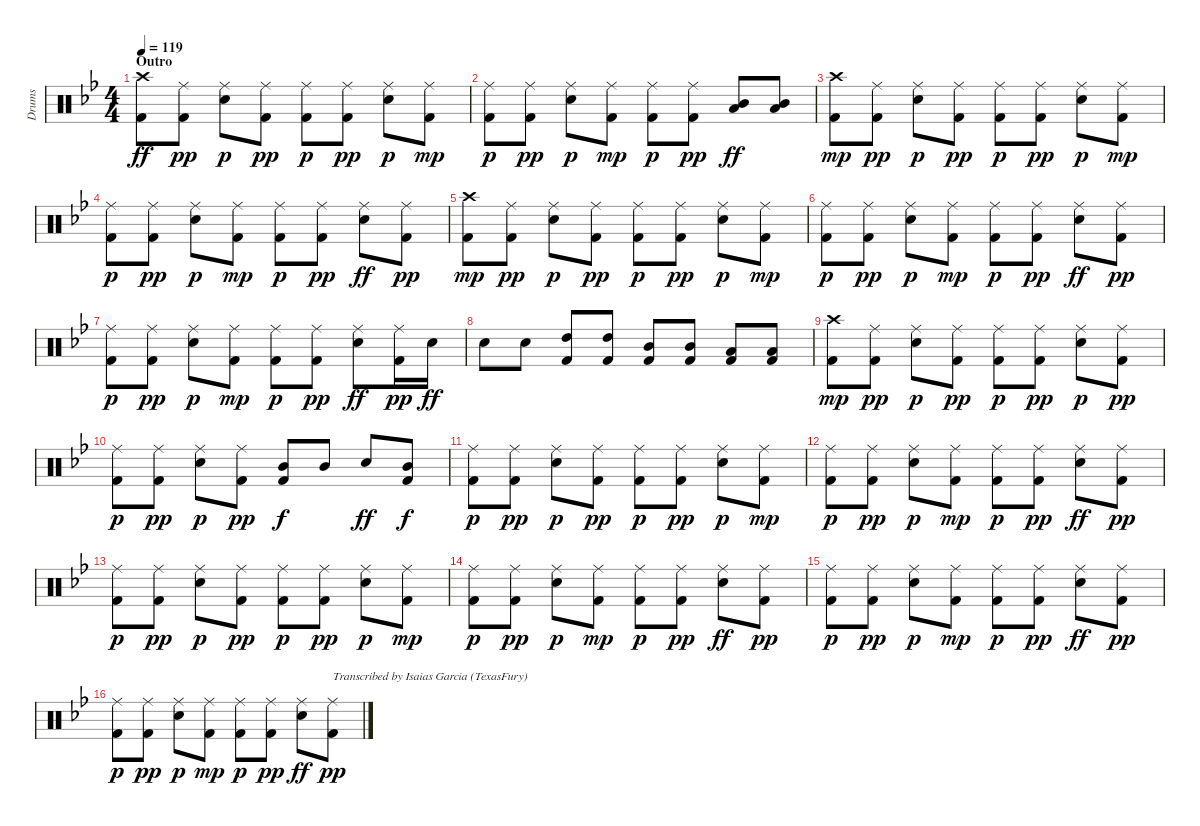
\track ("Drums" "Drums") {instrument percussion}
\staff {score}
\articulation defaults
\ts (4 4)
\section ("" "Outro")
\tempo 119
\clef neutral
\ks bb
("Crash high (hit)" "Kick (hit) 2").8{dy ff} ("Ride (middle)" "Kick (hit) 2").8{dy pp} ("Ride (middle)" "Electric Snare (hit)").8{dy p} ("Ride (middle)" "Kick (hit) 2").8{dy pp} ("Ride (middle)" "Kick (hit) 2").8{dy p} ("Ride (middle)" "Kick (hit) 2").8{dy pp} ("Ride (middle)" "Electric Snare (hit)").8{dy p} ("Ride (middle)" "Kick (hit) 2").8{dy mp} |
("Ride (middle)" "Kick (hit) 2").8{dy p} ("Ride (middle)" "Kick (hit) 2").8{dy pp} ("Ride (middle)" "Electric Snare (hit)").8{dy p} ("Ride (middle)" "Kick (hit) 2").8{dy mp} ("Ride (middle)" "Kick (hit) 2").8{dy p} ("Ride (middle)" "Kick (hit) 2").8{dy pp} ("Mid Tom (hit)" "Low Tom (hit)").8{dy ff} ("Mid Tom (hit)" "Low Tom (hit)").8 |
("Crash high (hit)" "Kick (hit) 2").8{dy mp} ("Ride (middle)" "Kick (hit) 2").8{dy pp} ("Ride (middle)" "Electric Snare (hit)").8{dy p} ("Ride (middle)" "Kick (hit) 2").8{dy pp} ("Ride (middle)" "Kick (hit) 2").8{dy p} ("Ride (middle)" "Kick (hit) 2").8{dy pp} ("Ride (middle)" "Electric Snare (hit)").8{dy p} ("Ride (middle)" "Kick (hit) 2").8{dy mp} |
("Ride (middle)" "Kick (hit) 2").8{dy p} ("Ride (middle)" "Kick (hit) 2").8{dy pp} ("Ride (middle)" "Electric Snare (hit)").8{dy p} ("Ride (middle)" "Kick (hit) 2").8{dy mp} ("Ride (middle)" "Kick (hit) 2").8{dy p} ("Ride (middle)" "Kick (hit) 2").8{dy pp} ("Ride (middle)" "Electric Snare (hit)").8{dy ff} ("Ride (middle)" "Kick (hit) 2").8{dy pp} |
("Crash high (hit)" "Kick (hit) 2").8{dy mp} ("Ride (middle)" "Kick (hit) 2").8{dy pp} ("Ride (middle)" "Electric Snare (hit)").8{dy p} ("Ride (middle)" "Kick (hit) 2").8{dy pp} ("Ride (middle)" "Kick (hit) 2").8{dy p} ("Ride (middle)" "Kick (hit) 2").8{dy pp} ("Ride (middle)" "Electric Snare (hit)").8{dy p} ("Ride (middle)" "Kick (hit) 2").8{dy mp} |
("Ride (middle)" "Kick (hit) 2").8{dy p} ("Ride (middle)" "Kick (hit) 2").8{dy pp} ("Ride (middle)" "Electric Snare (hit)").8{dy p} ("Ride (middle)" "Kick (hit) 2").8{dy mp} ("Ride (middle)" "Kick (hit) 2").8{dy p} ("Ride (middle)" "Kick (hit) 2").8{dy pp} ("Ride (middle)" "Electric Snare (hit)").8{dy ff} ("Ride (middle)" "Kick (hit) 2").8{dy pp} |
("Ride (middle)" "Kick (hit) 2").8{dy p} ("Ride (middle)" "Kick (hit) 2").8{dy pp} ("Ride (middle)" "Electric Snare (hit)").8{dy p} ("Ride (middle)" "Kick (hit) 2").8{dy mp} ("Ride (middle)" "Kick (hit) 2").8{dy p} ("Ride (middle)" "Kick (hit) 2").8{dy pp} ("Ride (middle)" "Electric Snare (hit)").8{dy ff} ("Ride (middle)" "Kick (hit) 2").16{dy pp} "Electric Snare (hit)".16{dy ff} |
"Electric Snare (hit)".8 "Electric Snare (hit)".8 ("Kick (hit) 2" "High Tom (hit)").8 ("Kick (hit) 2" "High Tom (hit)").8 ("Kick (hit) 2" "Mid Tom (hit)").8 ("Kick (hit) 2" "Mid Tom (hit)").8 ("Kick (hit) 2" "Low Tom (hit)").8 ("Kick (hit) 2" "Low Tom (hit)").8 |
("Crash high (hit)" "Kick (hit) 2").8{dy mp volume 6} ("Ride (middle)" "Kick (hit) 2").8{dy pp} ("Ride (middle)" "Electric Snare (hit)").8{dy p} ("Ride (middle)" "Kick (hit) 2").8{dy pp} ("Ride (middle)" "Kick (hit) 2").8{dy p} ("Ride (middle)" "Kick (hit) 2").8{dy pp} ("Ride (middle)" "Electric Snare (hit)").8{dy p} ("Ride (middle)" "Kick (hit) 2").8{dy pp} |
("Ride (middle)" "Kick (hit) 2").8{dy p} ("Ride (middle)" "Kick (hit) 2").8{dy pp} ("Ride (middle)" "Electric Snare (hit)").8{dy p} ("Ride (middle)" "Kick (hit) 2").8{dy pp} ("Mid Tom (hit)" "Kick (hit) 2").8{dy f} "Mid Tom (hit)".8 "Electric Snare (hit)".8{dy ff} ("Kick (hit) 2" "Mid Tom (hit)").8{dy f} |
("Ride (middle)" "Kick (hit) 2").8{dy p} ("Ride (middle)" "Kick (hit) 2").8{dy pp} ("Ride (middle)" "Electric Snare (hit)").8{dy p} ("Ride (middle)" "Kick (hit) 2").8{dy pp} ("Ride (middle)" "Kick (hit) 2").8{dy p} ("Ride (middle)" "Kick (hit) 2").8{dy pp} ("Ride (middle)" "Electric Snare (hit)").8{dy p} ("Ride (middle)" "Kick (hit) 2").8{dy mp} |
("Ride (middle)" "Kick (hit) 2").8{dy p} ("Ride (middle)" "Kick (hit) 2").8{dy pp} ("Ride (middle)" "Electric Snare (hit)").8{dy p} ("Ride (middle)" "Kick (hit) 2").8{dy mp} ("Ride (middle)" "Kick (hit) 2").8{dy p} ("Ride (middle)" "Kick (hit) 2").8{dy pp} ("Ride (middle)" "Electric Snare (hit)").8{dy ff} ("Ride (middle)" "Kick (hit) 2").8{dy pp} |
("Ride (middle)" "Kick (hit) 2").8{dy p volume 0} ("Ride (middle)" "Kick (hit) 2").8{dy pp} ("Ride (middle)" "Electric Snare (hit)").8{dy p} ("Ride (middle)" "Kick (hit) 2").8{dy pp} ("Ride (middle)" "Kick (hit) 2").8{dy p} ("Ride (middle)" "Kick (hit) 2").8{dy pp} ("Ride (middle)" "Electric Snare (hit)").8{dy p} ("Ride (middle)" "Kick (hit) 2").8{dy mp} |
("Ride (middle)" "Kick (hit) 2").8{dy p} ("Ride (middle)" "Kick (hit) 2").8{dy pp} ("Ride (middle)" "Electric Snare (hit)").8{dy p} ("Ride (middle)" "Kick (hit) 2").8{dy mp} ("Ride (middle)" "Kick (hit) 2").8{dy p} ("Ride (middle)" "Kick (hit) 2").8{dy pp} ("Ride (middle)" "Electric Snare (hit)").8{dy ff} ("Ride (middle)" "Kick (hit) 2").8{dy pp} |
("Ride (middle)" "Kick (hit) 2").8{dy p} ("Ride (middle)" "Kick (hit) 2").8{dy pp} ("Ride (middle)" "Electric Snare (hit)").8{dy p} ("Ride (middle)" "Kick (hit) 2").8{dy mp} ("Ride (middle)" "Kick (hit) 2").8{dy p} ("Ride (middle)" "Kick (hit) 2").8{dy pp} ("Ride (middle)" "Electric Snare (hit)").8{dy ff} ("Ride (middle)" "Kick (hit) 2").8{dy pp} |
("Ride (middle)" "Kick (hit) 2").8{dy p} ("Ride (middle)" "Kick (hit) 2").8{dy pp} ("Ride (middle)" "Electric Snare (hit)").8{dy p} ("Ride (middle)" "Kick (hit) 2").8{dy mp} ("Ride (middle)" "Kick (hit) 2").8{dy p} ("Ride (middle)" "Kick (hit) 2").8{dy pp} ("Ride (middle)" "Electric Snare (hit)").8{dy ff} ("Ride (middle)" "Kick (hit) 2").8{txt "Transcribed by Isaias Garcia (TexasFury)" dy pp}
